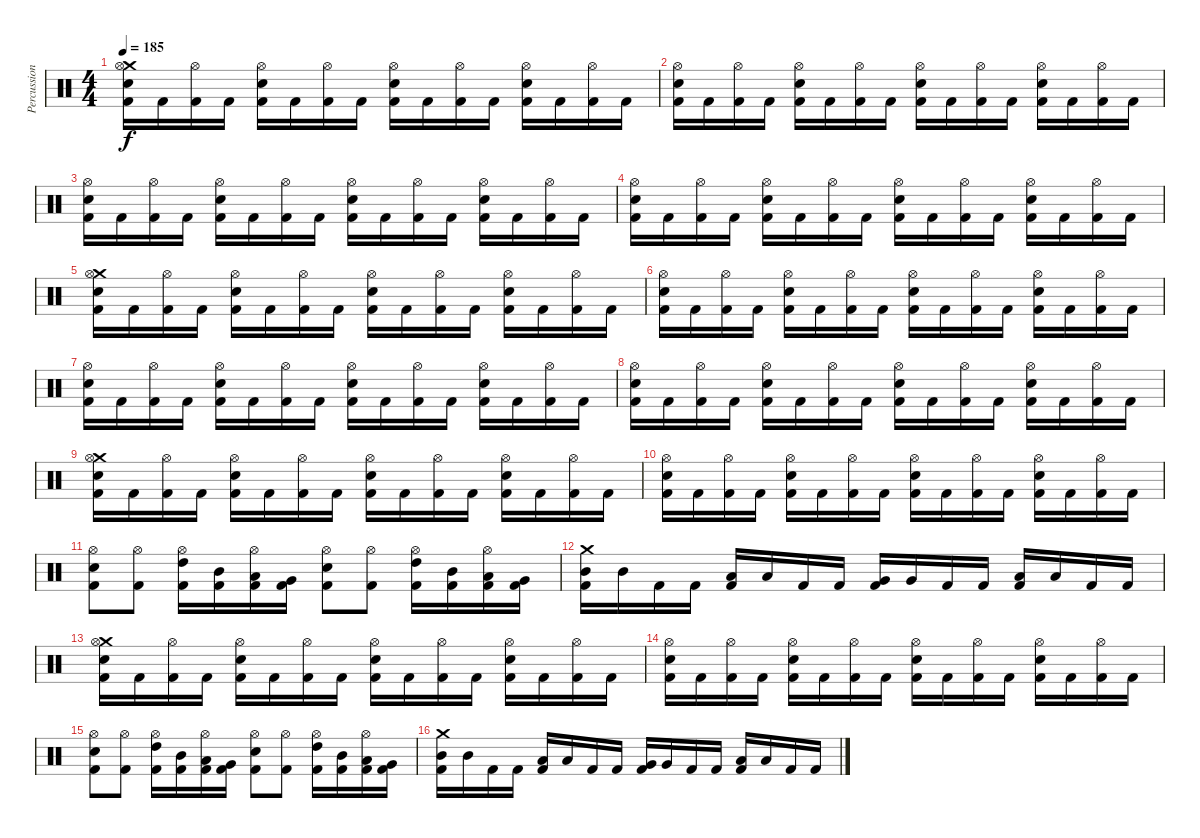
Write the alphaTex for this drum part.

\track ("Percussion" "Percussion") {instrument percussion}
\staff {score}
\articulation defaults
\ts (4 4)
\tempo 185
\clef neutral
\ks c
("Crash medium (hit)" "Hi-Hat (open)" "Electric Snare (hit)" "Kick (hit) 2").16{dy f} "Kick (hit) 2".16 ("Hi-Hat (open)" "Kick (hit) 2").16 "Kick (hit) 2".16 ("Hi-Hat (open)" "Electric Snare (hit)" "Kick (hit) 2").16 "Kick (hit) 2".16 ("Hi-Hat (open)" "Kick (hit) 2").16 "Kick (hit) 2".16 ("Hi-Hat (open)" "Electric Snare (hit)" "Kick (hit) 2").16 "Kick (hit) 2".16 ("Hi-Hat (open)" "Kick (hit) 2").16 "Kick (hit) 2".16 ("Hi-Hat (open)" "Electric Snare (hit)" "Kick (hit) 2").16 "Kick (hit) 2".16 ("Hi-Hat (open)" "Kick (hit) 2").16 "Kick (hit) 2".16 |
("Hi-Hat (open)" "Electric Snare (hit)" "Kick (hit) 2").16 "Kick (hit) 2".16 ("Hi-Hat (open)" "Kick (hit) 2").16 "Kick (hit) 2".16 ("Hi-Hat (open)" "Electric Snare (hit)" "Kick (hit) 2").16 "Kick (hit) 2".16 ("Hi-Hat (open)" "Kick (hit) 2").16 "Kick (hit) 2".16 ("Hi-Hat (open)" "Electric Snare (hit)" "Kick (hit) 2").16 "Kick (hit) 2".16 ("Hi-Hat (open)" "Kick (hit) 2").16 "Kick (hit) 2".16 ("Hi-Hat (open)" "Electric Snare (hit)" "Kick (hit) 2").16 "Kick (hit) 2".16 ("Hi-Hat (open)" "Kick (hit) 2").16 "Kick (hit) 2".16 |
("Hi-Hat (open)" "Electric Snare (hit)" "Kick (hit) 2").16 "Kick (hit) 2".16 ("Hi-Hat (open)" "Kick (hit) 2").16 "Kick (hit) 2".16 ("Hi-Hat (open)" "Electric Snare (hit)" "Kick (hit) 2").16 "Kick (hit) 2".16 ("Hi-Hat (open)" "Kick (hit) 2").16 "Kick (hit) 2".16 ("Hi-Hat (open)" "Electric Snare (hit)" "Kick (hit) 2").16 "Kick (hit) 2".16 ("Hi-Hat (open)" "Kick (hit) 2").16 "Kick (hit) 2".16 ("Hi-Hat (open)" "Electric Snare (hit)" "Kick (hit) 2").16 "Kick (hit) 2".16 ("Hi-Hat (open)" "Kick (hit) 2").16 "Kick (hit) 2".16 |
("Hi-Hat (open)" "Electric Snare (hit)" "Kick (hit) 2").16 "Kick (hit) 2".16 ("Hi-Hat (open)" "Kick (hit) 2").16 "Kick (hit) 2".16 ("Hi-Hat (open)" "Electric Snare (hit)" "Kick (hit) 2").16 "Kick (hit) 2".16 ("Hi-Hat (open)" "Kick (hit) 2").16 "Kick (hit) 2".16 ("Hi-Hat (open)" "Electric Snare (hit)" "Kick (hit) 2").16 "Kick (hit) 2".16 ("Hi-Hat (open)" "Kick (hit) 2").16 "Kick (hit) 2".16 ("Hi-Hat (open)" "Electric Snare (hit)" "Kick (hit) 2").16 "Kick (hit) 2".16 ("Hi-Hat (open)" "Kick (hit) 2").16 "Kick (hit) 2".16 |
("Crash medium (hit)" "Hi-Hat (open)" "Electric Snare (hit)" "Kick (hit) 2").16 "Kick (hit) 2".16 ("Hi-Hat (open)" "Kick (hit) 2").16 "Kick (hit) 2".16 ("Hi-Hat (open)" "Electric Snare (hit)" "Kick (hit) 2").16 "Kick (hit) 2".16 ("Hi-Hat (open)" "Kick (hit) 2").16 "Kick (hit) 2".16 ("Hi-Hat (open)" "Electric Snare (hit)" "Kick (hit) 2").16 "Kick (hit) 2".16 ("Hi-Hat (open)" "Kick (hit) 2").16 "Kick (hit) 2".16 ("Hi-Hat (open)" "Electric Snare (hit)" "Kick (hit) 2").16 "Kick (hit) 2".16 ("Hi-Hat (open)" "Kick (hit) 2").16 "Kick (hit) 2".16 |
("Hi-Hat (open)" "Electric Snare (hit)" "Kick (hit) 2").16 "Kick (hit) 2".16 ("Hi-Hat (open)" "Kick (hit) 2").16 "Kick (hit) 2".16 ("Hi-Hat (open)" "Electric Snare (hit)" "Kick (hit) 2").16 "Kick (hit) 2".16 ("Hi-Hat (open)" "Kick (hit) 2").16 "Kick (hit) 2".16 ("Hi-Hat (open)" "Electric Snare (hit)" "Kick (hit) 2").16 "Kick (hit) 2".16 ("Hi-Hat (open)" "Kick (hit) 2").16 "Kick (hit) 2".16 ("Hi-Hat (open)" "Electric Snare (hit)" "Kick (hit) 2").16 "Kick (hit) 2".16 ("Hi-Hat (open)" "Kick (hit) 2").16 "Kick (hit) 2".16 |
("Hi-Hat (open)" "Electric Snare (hit)" "Kick (hit) 2").16 "Kick (hit) 2".16 ("Hi-Hat (open)" "Kick (hit) 2").16 "Kick (hit) 2".16 ("Hi-Hat (open)" "Electric Snare (hit)" "Kick (hit) 2").16 "Kick (hit) 2".16 ("Hi-Hat (open)" "Kick (hit) 2").16 "Kick (hit) 2".16 ("Hi-Hat (open)" "Electric Snare (hit)" "Kick (hit) 2").16 "Kick (hit) 2".16 ("Hi-Hat (open)" "Kick (hit) 2").16 "Kick (hit) 2".16 ("Hi-Hat (open)" "Electric Snare (hit)" "Kick (hit) 2").16 "Kick (hit) 2".16 ("Hi-Hat (open)" "Kick (hit) 2").16 "Kick (hit) 2".16 |
("Hi-Hat (open)" "Electric Snare (hit)" "Kick (hit) 2").16 "Kick (hit) 2".16 ("Hi-Hat (open)" "Kick (hit) 2").16 "Kick (hit) 2".16 ("Hi-Hat (open)" "Electric Snare (hit)" "Kick (hit) 2").16 "Kick (hit) 2".16 ("Hi-Hat (open)" "Kick (hit) 2").16 "Kick (hit) 2".16 ("Hi-Hat (open)" "Electric Snare (hit)" "Kick (hit) 2").16 "Kick (hit) 2".16 ("Hi-Hat (open)" "Kick (hit) 2").16 "Kick (hit) 2".16 ("Hi-Hat (open)" "Electric Snare (hit)" "Kick (hit) 2").16 "Kick (hit) 2".16 ("Hi-Hat (open)" "Kick (hit) 2").16 "Kick (hit) 2".16 |
("Crash medium (hit)" "Hi-Hat (open)" "Electric Snare (hit)" "Kick (hit) 2").16 "Kick (hit) 2".16 ("Hi-Hat (open)" "Kick (hit) 2").16 "Kick (hit) 2".16 ("Hi-Hat (open)" "Electric Snare (hit)" "Kick (hit) 2").16 "Kick (hit) 2".16 ("Hi-Hat (open)" "Kick (hit) 2").16 "Kick (hit) 2".16 ("Hi-Hat (open)" "Electric Snare (hit)" "Kick (hit) 2").16 "Kick (hit) 2".16 ("Hi-Hat (open)" "Kick (hit) 2").16 "Kick (hit) 2".16 ("Hi-Hat (open)" "Electric Snare (hit)" "Kick (hit) 2").16 "Kick (hit) 2".16 ("Hi-Hat (open)" "Kick (hit) 2").16 "Kick (hit) 2".16 |
("Hi-Hat (open)" "Electric Snare (hit)" "Kick (hit) 2").16 "Kick (hit) 2".16 ("Hi-Hat (open)" "Kick (hit) 2").16 "Kick (hit) 2".16 ("Hi-Hat (open)" "Electric Snare (hit)" "Kick (hit) 2").16 "Kick (hit) 2".16 ("Hi-Hat (open)" "Kick (hit) 2").16 "Kick (hit) 2".16 ("Hi-Hat (open)" "Electric Snare (hit)" "Kick (hit) 2").16 "Kick (hit) 2".16 ("Hi-Hat (open)" "Kick (hit) 2").16 "Kick (hit) 2".16 ("Hi-Hat (open)" "Electric Snare (hit)" "Kick (hit) 2").16 "Kick (hit) 2".16 ("Hi-Hat (open)" "Kick (hit) 2").16 "Kick (hit) 2".16 |
("Hi-Hat (open)" "Electric Snare (hit)" "Kick (hit) 2").8 ("Hi-Hat (open)" "Kick (hit) 2").8 ("Hi-Hat (open)" "High Tom (hit)" "Kick (hit) 2").16 ("Mid Tom (hit)" "Kick (hit) 2").16 ("Hi-Hat (open)" "Low Tom (hit)" "Kick (hit) 2").16 ("Very Low Tom (hit)" "Kick (hit) 2").16 ("Hi-Hat (open)" "Electric Snare (hit)" "Kick (hit) 2").8 ("Hi-Hat (open)" "Kick (hit) 2").8 ("Hi-Hat (open)" "High Tom (hit)" "Kick (hit) 2").16 ("Mid Tom (hit)" "Kick (hit) 2").16 ("Hi-Hat (open)" "Low Tom (hit)" "Kick (hit) 2").16 ("Very Low Tom (hit)" "Kick (hit) 2").16 |
("Crash medium (hit)" "Mid Tom (hit)" "Kick (hit) 2").16 "Mid Tom (hit)".16 "Kick (hit) 2".16 "Kick (hit) 2".16 ("Low Tom (hit)" "Kick (hit) 2").16 "Low Tom (hit)".16 "Kick (hit) 2".16 "Kick (hit) 2".16 ("Very Low Tom (hit)" "Kick (hit) 2").16 "Very Low Tom (hit)".16 "Kick (hit) 2".16 "Kick (hit) 2".16 ("Low Floor Tom (hit)" "Kick (hit) 2").16 "Low Floor Tom (hit)".16 "Kick (hit) 2".16 "Kick (hit) 2".16 |
("Crash medium (hit)" "Hi-Hat (open)" "Electric Snare (hit)" "Kick (hit) 2").16 "Kick (hit) 2".16 ("Hi-Hat (open)" "Kick (hit) 2").16 "Kick (hit) 2".16 ("Hi-Hat (open)" "Electric Snare (hit)" "Kick (hit) 2").16 "Kick (hit) 2".16 ("Hi-Hat (open)" "Kick (hit) 2").16 "Kick (hit) 2".16 ("Hi-Hat (open)" "Electric Snare (hit)" "Kick (hit) 2").16 "Kick (hit) 2".16 ("Hi-Hat (open)" "Kick (hit) 2").16 "Kick (hit) 2".16 ("Hi-Hat (open)" "Electric Snare (hit)" "Kick (hit) 2").16 "Kick (hit) 2".16 ("Hi-Hat (open)" "Kick (hit) 2").16 "Kick (hit) 2".16 |
("Hi-Hat (open)" "Electric Snare (hit)" "Kick (hit) 2").16 "Kick (hit) 2".16 ("Hi-Hat (open)" "Kick (hit) 2").16 "Kick (hit) 2".16 ("Hi-Hat (open)" "Electric Snare (hit)" "Kick (hit) 2").16 "Kick (hit) 2".16 ("Hi-Hat (open)" "Kick (hit) 2").16 "Kick (hit) 2".16 ("Hi-Hat (open)" "Electric Snare (hit)" "Kick (hit) 2").16 "Kick (hit) 2".16 ("Hi-Hat (open)" "Kick (hit) 2").16 "Kick (hit) 2".16 ("Hi-Hat (open)" "Electric Snare (hit)" "Kick (hit) 2").16 "Kick (hit) 2".16 ("Hi-Hat (open)" "Kick (hit) 2").16 "Kick (hit) 2".16 |
("Hi-Hat (open)" "Electric Snare (hit)" "Kick (hit) 2").8 ("Hi-Hat (open)" "Kick (hit) 2").8 ("Hi-Hat (open)" "High Tom (hit)" "Kick (hit) 2").16 ("Mid Tom (hit)" "Kick (hit) 2").16 ("Hi-Hat (open)" "Low Tom (hit)" "Kick (hit) 2").16 ("Very Low Tom (hit)" "Kick (hit) 2").16 ("Hi-Hat (open)" "Electric Snare (hit)" "Kick (hit) 2").8 ("Hi-Hat (open)" "Kick (hit) 2").8 ("Hi-Hat (open)" "High Tom (hit)" "Kick (hit) 2").16 ("Mid Tom (hit)" "Kick (hit) 2").16 ("Hi-Hat (open)" "Low Tom (hit)" "Kick (hit) 2").16 ("Very Low Tom (hit)" "Kick (hit) 2").16 |
("Crash medium (hit)" "Mid Tom (hit)" "Kick (hit) 2").16 "Mid Tom (hit)".16 "Kick (hit) 2".16 "Kick (hit) 2".16 ("Low Tom (hit)" "Kick (hit) 2").16 "Low Tom (hit)".16 "Kick (hit) 2".16 "Kick (hit) 2".16 ("Very Low Tom (hit)" "Kick (hit) 2").16 "Very Low Tom (hit)".16 "Kick (hit) 2".16 "Kick (hit) 2".16 ("Low Floor Tom (hit)" "Kick (hit) 2").16 "Low Floor Tom (hit)".16 "Kick (hit) 2".16 "Kick (hit) 2".16
